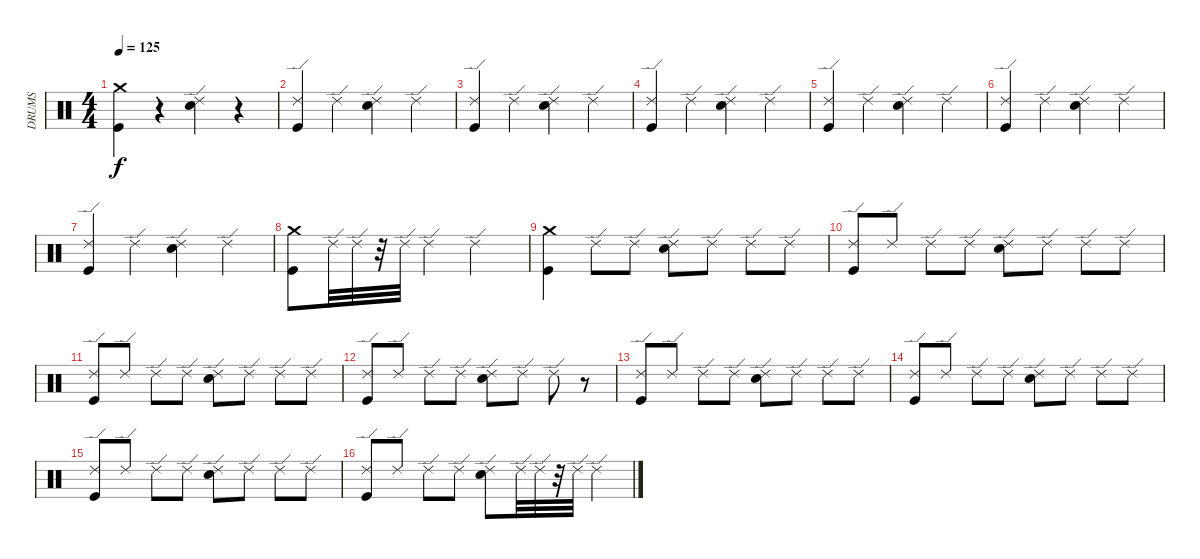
\track ("DRUMS" "DRUMS") {instrument percussion}
\staff {score}
\articulation defaults
\ts (4 4)
\tempo 125
\clef neutral
\ks c
("Crash medium (hit)" "Kick (hit)").4{dy f} r.4 ("Ride (edge) 2" "Snare (hit) 2").4 r.4 |
("Ride (edge) 2" "Kick (hit)").4 "Ride (edge) 2".4 ("Ride (edge) 2" "Snare (hit) 2").4 "Ride (edge) 2".4 |
("Ride (edge) 2" "Kick (hit)").4 "Ride (edge) 2".4 ("Ride (edge) 2" "Snare (hit) 2").4 "Ride (edge) 2".4 |
("Ride (edge) 2" "Kick (hit)").4 "Ride (edge) 2".4 ("Ride (edge) 2" "Snare (hit) 2").4 "Ride (edge) 2".4 |
("Ride (edge) 2" "Kick (hit)").4 "Ride (edge) 2".4 ("Ride (edge) 2" "Snare (hit) 2").4 "Ride (edge) 2".4 |
("Ride (edge) 2" "Kick (hit)").4 "Ride (edge) 2".4 ("Ride (edge) 2" "Snare (hit) 2").4 "Ride (edge) 2".4 |
("Ride (edge) 2" "Kick (hit)").4 "Ride (edge) 2".4 ("Ride (edge) 2" "Snare (hit) 2").4 "Ride (edge) 2".4 |
("Crash medium (hit)" "Kick (hit)").8 "Ride (edge) 2".32 "Ride (edge) 2".32 r.32 "Ride (edge) 2".32 "Ride (edge) 2".4 "Ride (edge) 2".2 |
("Crash medium (hit)" "Kick (hit)").4 "Ride (edge) 2".8 "Ride (edge) 2".8 ("Ride (edge) 2" "Snare (hit) 2").8 "Ride (edge) 2".8 "Ride (edge) 2".8 "Ride (edge) 2".8 |
("Ride (edge) 2" "Kick (hit)").8 "Ride (edge) 2".8 "Ride (edge) 2".8 "Ride (edge) 2".8 ("Ride (edge) 2" "Snare (hit) 2").8 "Ride (edge) 2".8 "Ride (edge) 2".8 "Ride (edge) 2".8 |
("Kick (hit)" "Ride (edge) 2").8 "Ride (edge) 2".8 "Ride (edge) 2".8 "Ride (edge) 2".8 ("Snare (hit) 2" "Ride (edge) 2").8 "Ride (edge) 2".8 "Ride (edge) 2".8 "Ride (edge) 2".8 |
("Ride (edge) 2" "Kick (hit)").8 "Ride (edge) 2".8 "Ride (edge) 2".8 "Ride (edge) 2".8 ("Ride (edge) 2" "Snare (hit) 2").8 "Ride (edge) 2".8 "Ride (edge) 2".8 r.8 |
("Kick (hit)" "Ride (edge) 2").8 "Ride (edge) 2".8 "Ride (edge) 2".8 "Ride (edge) 2".8 ("Snare (hit) 2" "Ride (edge) 2").8 "Ride (edge) 2".8 "Ride (edge) 2".8 "Ride (edge) 2".8 |
("Kick (hit)" "Ride (edge) 2").8 "Ride (edge) 2".8 "Ride (edge) 2".8 "Ride (edge) 2".8 ("Snare (hit) 2" "Ride (edge) 2").8 "Ride (edge) 2".8 "Ride (edge) 2".8 "Ride (edge) 2".8 |
("Kick (hit)" "Ride (edge) 2").8 "Ride (edge) 2".8 "Ride (edge) 2".8 "Ride (edge) 2".8 ("Snare (hit) 2" "Ride (edge) 2").8 "Ride (edge) 2".8 "Ride (edge) 2".8 "Ride (edge) 2".8 |
("Ride (edge) 2" "Kick (hit)").8 "Ride (edge) 2".8 "Ride (edge) 2".8 "Ride (edge) 2".8 ("Ride (edge) 2" "Snare (hit) 2").8 "Ride (edge) 2".32 "Ride (edge) 2".32 r.32 "Ride (edge) 2".32 "Ride (edge) 2".4
